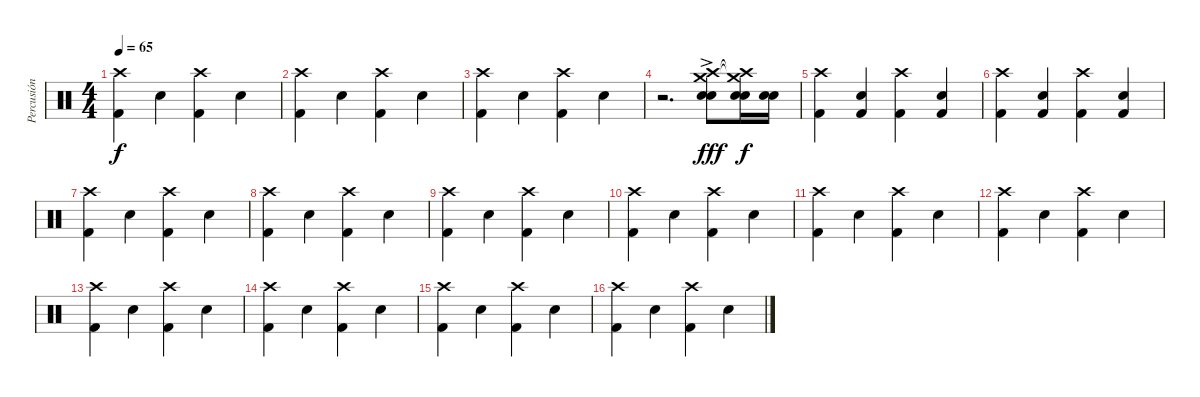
\track ("Percusión" "Percusión") {instrument percussion}
\staff {score}
\articulation defaults
\ts (4 4)
\tempo 65
\clef neutral
\ks c
("Crash high (hit)" "Kick (hit) 2").4{dy f} "Snare (hit) 2".4 ("Crash high (hit)" "Kick (hit) 2").4 "Snare (hit) 2".4 |
("Crash high (hit)" "Kick (hit) 2").4 "Snare (hit) 2".4 ("Crash high (hit)" "Kick (hit) 2").4 "Snare (hit) 2".4 |
("Crash high (hit)" "Kick (hit) 2").4 "Snare (hit) 2".4 ("Crash high (hit)" "Kick (hit) 2").4 "Snare (hit) 2".4 |
r.2{d} ("Crash medium (hit)"{ac} "Crash high (hit)" "Electric Snare (hit)" "Snare (hit) 2").8{dy fff volume 16} ("Crash medium (hit)"{t} "Crash high (hit)"{t} "Electric Snare (hit)" "Snare (hit) 2").16{dy f} ("Electric Snare (hit)" "Snare (hit) 2").16 |
("Crash high (hit)" "Kick (hit) 2").4 ("Kick (hit) 2" "Snare (hit) 2").4 ("Crash high (hit)" "Kick (hit) 2").4 ("Kick (hit) 2" "Snare (hit) 2").4 |
("Crash high (hit)" "Kick (hit) 2").4 ("Kick (hit) 2" "Snare (hit) 2").4 ("Crash high (hit)" "Kick (hit) 2").4 ("Kick (hit) 2" "Snare (hit) 2").4 |
("Crash high (hit)" "Kick (hit) 2").4 "Snare (hit) 2".4 ("Crash high (hit)" "Kick (hit) 2").4 "Snare (hit) 2".4 |
("Crash high (hit)" "Kick (hit) 2").4 "Snare (hit) 2".4 ("Crash high (hit)" "Kick (hit) 2").4 "Snare (hit) 2".4 |
("Crash high (hit)" "Kick (hit) 2").4 "Snare (hit) 2".4 ("Crash high (hit)" "Kick (hit) 2").4 "Snare (hit) 2".4 |
("Crash high (hit)" "Kick (hit) 2").4 "Snare (hit) 2".4 ("Crash high (hit)" "Kick (hit) 2").4 "Snare (hit) 2".4 |
("Crash high (hit)" "Kick (hit) 2").4 "Snare (hit) 2".4 ("Crash high (hit)" "Kick (hit) 2").4 "Snare (hit) 2".4 |
("Crash high (hit)" "Kick (hit) 2").4 "Snare (hit) 2".4 ("Crash high (hit)" "Kick (hit) 2").4 "Snare (hit) 2".4 |
("Crash high (hit)" "Kick (hit) 2").4 "Snare (hit) 2".4 ("Crash high (hit)" "Kick (hit) 2").4 "Snare (hit) 2".4 |
("Crash high (hit)" "Kick (hit) 2").4 "Snare (hit) 2".4 ("Crash high (hit)" "Kick (hit) 2").4 "Snare (hit) 2".4 |
("Crash high (hit)" "Kick (hit) 2").4 "Snare (hit) 2".4 ("Crash high (hit)" "Kick (hit) 2").4 "Snare (hit) 2".4 |
("Crash high (hit)" "Kick (hit) 2").4 "Snare (hit) 2".4 ("Crash high (hit)" "Kick (hit) 2").4 "Snare (hit) 2".4
